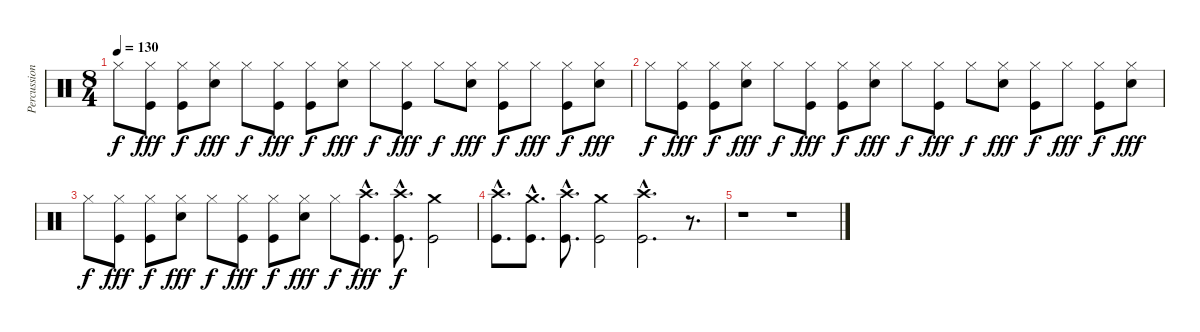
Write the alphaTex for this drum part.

\track ("Percussion" "Percussion") {instrument percussion}
\staff {score}
\articulation defaults
\ts (8 4)
\tempo 130
\clef neutral
\ks c "Hi-Hat (closed)".8{dy f}
("Hi-Hat (closed)" "Kick (hit)").8{dy fff} ("Hi-Hat (closed)" "Kick (hit)").8{dy f} ("Hi-Hat (closed)" "Electric Snare (hit)").8{dy fff} "Hi-Hat (closed)".8{dy f} ("Hi-Hat (closed)" "Kick (hit)").8{dy fff} ("Hi-Hat (closed)" "Kick (hit)").8{dy f} ("Hi-Hat (closed)" "Electric Snare (hit)").8{dy fff} "Hi-Hat (closed)".8{dy f} ("Hi-Hat (closed)" "Kick (hit)").8{dy fff} "Hi-Hat (closed)".8{dy f} ("Hi-Hat (closed)" "Electric Snare (hit)").8{dy fff} ("Hi-Hat (closed)" "Kick (hit)").8{dy f} "Hi-Hat (closed)".8{dy fff} ("Hi-Hat (closed)" "Kick (hit)").8{dy f} ("Hi-Hat (closed)" "Electric Snare (hit)").8{dy fff} |
"Hi-Hat (closed)".8{dy f} ("Hi-Hat (closed)" "Kick (hit)").8{dy fff} ("Hi-Hat (closed)" "Kick (hit)").8{dy f} ("Hi-Hat (closed)" "Electric Snare (hit)").8{dy fff} "Hi-Hat (closed)".8{dy f} ("Hi-Hat (closed)" "Kick (hit)").8{dy fff} ("Hi-Hat (closed)" "Kick (hit)").8{dy f} ("Hi-Hat (closed)" "Electric Snare (hit)").8{dy fff} "Hi-Hat (closed)".8{dy f} ("Hi-Hat (closed)" "Kick (hit)").8{dy fff} "Hi-Hat (closed)".8{dy f} ("Hi-Hat (closed)" "Electric Snare (hit)").8{dy fff} ("Hi-Hat (closed)" "Kick (hit)").8{dy f} "Hi-Hat (closed)".8{dy fff} ("Hi-Hat (closed)" "Kick (hit)").8{dy f} ("Hi-Hat (closed)" "Electric Snare (hit)").8{dy fff} |
"Hi-Hat (closed)".8{dy f} ("Hi-Hat (closed)" "Kick (hit)").8{dy fff} ("Hi-Hat (closed)" "Kick (hit)").8{dy f} ("Hi-Hat (closed)" "Electric Snare (hit)").8{dy fff} "Hi-Hat (closed)".8{dy f} ("Hi-Hat (closed)" "Kick (hit)").8{dy fff} ("Hi-Hat (closed)" "Kick (hit)").8{dy f} ("Hi-Hat (closed)" "Electric Snare (hit)").8{dy fff} "Hi-Hat (closed)".8{dy f} ("Crash high (hit)"{hac} "Kick (hit)"{hac}).8{d dy fff} ("Crash high (hit)"{hac} "Kick (hit)"{hac}).8{d dy f} ("Crash medium (hit)" "Kick (hit)").2 |
("Crash high (hit)"{hac} "Kick (hit)"{hac}).8{d} ("Crash medium (hit)"{hac} "Kick (hit)"{hac}).8{d} ("Crash high (hit)"{hac} "Kick (hit)"{hac}).8{d} ("Crash medium (hit)" "Kick (hit)").2 ("Crash high (hit)"{hac} "Kick (hit)"{hac}).2{d} r.8{d} |
r.1 r.1
